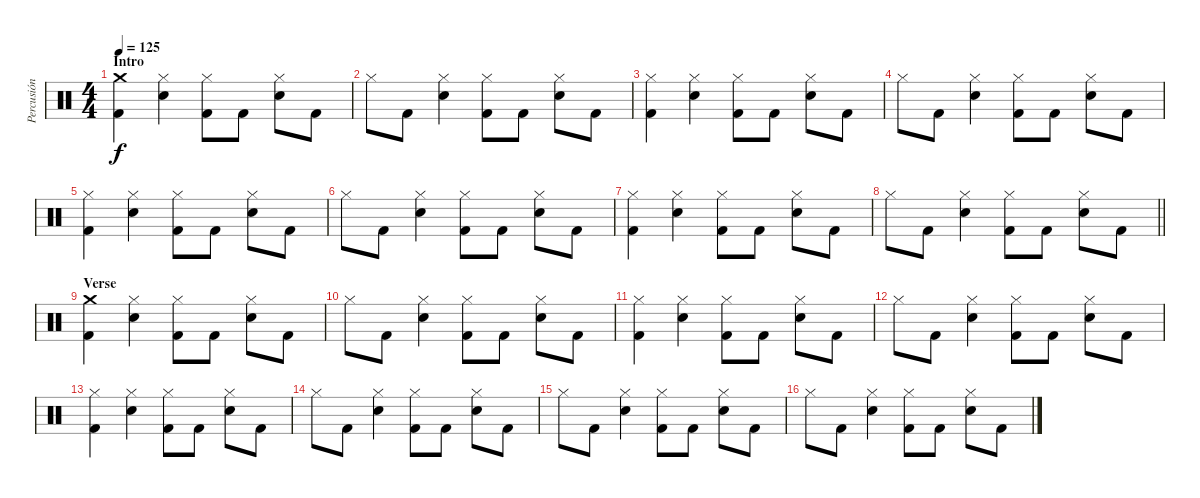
\track ("Percusión" "Percusión") {instrument percussion}
\staff {score}
\articulation defaults
\ts (4 4)
\section ("" "Intro")
\tempo 125
\clef neutral
\ks c
("Crash medium (hit)" "Kick (hit) 2").4{dy f} ("Snare (hit) 2" "Hi-Hat (closed)").4 ("Kick (hit) 2" "Hi-Hat (closed)").8 "Kick (hit) 2".8 ("Hi-Hat (closed)" "Snare (hit) 2").8 "Kick (hit) 2".8 |
"Hi-Hat (closed)".8 "Kick (hit) 2".8 ("Hi-Hat (closed)" "Snare (hit) 2").4 ("Hi-Hat (closed)" "Kick (hit) 2").8 "Kick (hit) 2".8 ("Hi-Hat (closed)" "Snare (hit) 2").8 "Kick (hit) 2".8 |
("Hi-Hat (closed)" "Kick (hit) 2").4 ("Snare (hit) 2" "Hi-Hat (closed)").4 ("Kick (hit) 2" "Hi-Hat (closed)").8 "Kick (hit) 2".8 ("Hi-Hat (closed)" "Snare (hit) 2").8 "Kick (hit) 2".8 |
"Hi-Hat (closed)".8 "Kick (hit) 2".8 ("Hi-Hat (closed)" "Snare (hit) 2").4 ("Hi-Hat (closed)" "Kick (hit) 2").8 "Kick (hit) 2".8 ("Hi-Hat (closed)" "Snare (hit) 2").8 "Kick (hit) 2".8 |
("Hi-Hat (closed)" "Kick (hit) 2").4 ("Snare (hit) 2" "Hi-Hat (closed)").4 ("Kick (hit) 2" "Hi-Hat (closed)").8 "Kick (hit) 2".8 ("Hi-Hat (closed)" "Snare (hit) 2").8 "Kick (hit) 2".8 |
"Hi-Hat (closed)".8 "Kick (hit) 2".8 ("Hi-Hat (closed)" "Snare (hit) 2").4 ("Hi-Hat (closed)" "Kick (hit) 2").8 "Kick (hit) 2".8 ("Hi-Hat (closed)" "Snare (hit) 2").8 "Kick (hit) 2".8 |
("Hi-Hat (closed)" "Kick (hit) 2").4 ("Snare (hit) 2" "Hi-Hat (closed)").4 ("Kick (hit) 2" "Hi-Hat (closed)").8 "Kick (hit) 2".8 ("Hi-Hat (closed)" "Snare (hit) 2").8 "Kick (hit) 2".8 |
\barLineRight lightlight "Hi-Hat (closed)".8 "Kick (hit) 2".8
("Hi-Hat (closed)" "Snare (hit) 2").4 ("Hi-Hat (closed)" "Kick (hit) 2").8 "Kick (hit) 2".8 ("Hi-Hat (closed)" "Snare (hit) 2").8 "Kick (hit) 2".8 |
\section ("" "Verse")
("Crash medium (hit)" "Kick (hit) 2").4 ("Snare (hit) 2" "Hi-Hat (closed)").4 ("Kick (hit) 2" "Hi-Hat (closed)").8 "Kick (hit) 2".8 ("Hi-Hat (closed)" "Snare (hit) 2").8 "Kick (hit) 2".8 |
"Hi-Hat (closed)".8 "Kick (hit) 2".8 ("Hi-Hat (closed)" "Snare (hit) 2").4 ("Hi-Hat (closed)" "Kick (hit) 2").8 "Kick (hit) 2".8 ("Hi-Hat (closed)" "Snare (hit) 2").8 "Kick (hit) 2".8 |
("Hi-Hat (closed)" "Kick (hit) 2").4 ("Snare (hit) 2" "Hi-Hat (closed)").4 ("Kick (hit) 2" "Hi-Hat (closed)").8 "Kick (hit) 2".8 ("Hi-Hat (closed)" "Snare (hit) 2").8 "Kick (hit) 2".8 |
"Hi-Hat (closed)".8 "Kick (hit) 2".8 ("Hi-Hat (closed)" "Snare (hit) 2").4 ("Hi-Hat (closed)" "Kick (hit) 2").8 "Kick (hit) 2".8 ("Hi-Hat (closed)" "Snare (hit) 2").8 "Kick (hit) 2".8 |
("Hi-Hat (closed)" "Kick (hit) 2").4 ("Snare (hit) 2" "Hi-Hat (closed)").4 ("Kick (hit) 2" "Hi-Hat (closed)").8 "Kick (hit) 2".8 ("Hi-Hat (closed)" "Snare (hit) 2").8 "Kick (hit) 2".8 |
"Hi-Hat (closed)".8 "Kick (hit) 2".8 ("Hi-Hat (closed)" "Snare (hit) 2").4 ("Hi-Hat (closed)" "Kick (hit) 2").8 "Kick (hit) 2".8 ("Hi-Hat (closed)" "Snare (hit) 2").8 "Kick (hit) 2".8 |
"Hi-Hat (closed)".8 "Kick (hit) 2".8 ("Hi-Hat (closed)" "Snare (hit) 2").4 ("Hi-Hat (closed)" "Kick (hit) 2").8 "Kick (hit) 2".8 ("Hi-Hat (closed)" "Snare (hit) 2").8 "Kick (hit) 2".8 |
"Hi-Hat (closed)".8 "Kick (hit) 2".8 ("Hi-Hat (closed)" "Snare (hit) 2").4 ("Hi-Hat (closed)" "Kick (hit) 2").8 "Kick (hit) 2".8 ("Hi-Hat (closed)" "Snare (hit) 2").8 "Kick (hit) 2".8
